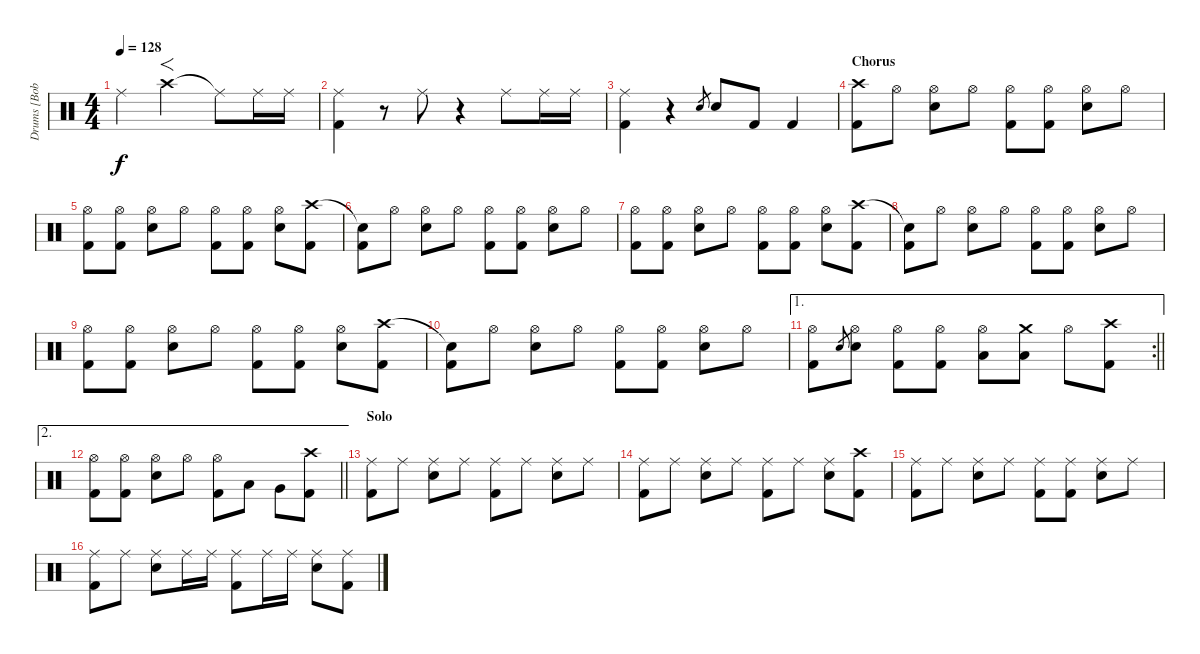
\track ("Drums [Bobby Blotzer]" "Drums [Bob") {instrument percussion}
\staff {score}
\articulation defaults
\ts (4 4)
\tempo 128
\clef neutral
\ks c "Ride (middle)".4{dy f} "Crash high (hit)".2{f} "Ride (middle)"{t}.8 "Ride (middle)".16 "Ride (middle)".16
|
("Ride (middle)" "Kick (hit) 2").4 r.8 "Ride (middle)".8 r.4 "Ride (middle)".8 "Ride (middle)".16 "Ride (middle)".16 |
("Ride (middle)" "Kick (hit) 2").4 r.4 "Electric Snare (hit)".8{gr} "Electric Snare (hit)".8 "Kick (hit) 2".8 "Kick (hit) 2".4 |
\section ("" "Chorus")
("Crash high (hit)" "Kick (hit) 2").8 "Hi-Hat (open)".8 ("Hi-Hat (open)" "Electric Snare (hit)").8 "Hi-Hat (open)".8 ("Hi-Hat (open)" "Kick (hit) 2").8 ("Hi-Hat (open)" "Kick (hit) 2").8 ("Hi-Hat (open)" "Electric Snare (hit)").8 "Hi-Hat (open)".8 |
("Hi-Hat (open)" "Kick (hit) 2").8 ("Hi-Hat (open)" "Kick (hit) 2").8 ("Hi-Hat (open)" "Electric Snare (hit)").8 "Hi-Hat (open)".8 ("Hi-Hat (open)" "Kick (hit) 2").8 ("Hi-Hat (open)" "Kick (hit) 2").8 ("Hi-Hat (open)" "Electric Snare (hit)").8 ("Crash high (hit)" "Kick (hit) 2").8 |
("Snare (hit)"{t} "Kick (hit) 2").8 "Hi-Hat (open)".8 ("Hi-Hat (open)" "Electric Snare (hit)").8 "Hi-Hat (open)".8 ("Hi-Hat (open)" "Kick (hit) 2").8 ("Hi-Hat (open)" "Kick (hit) 2").8 ("Hi-Hat (open)" "Electric Snare (hit)").8 "Hi-Hat (open)".8 |
("Hi-Hat (open)" "Kick (hit) 2").8 ("Hi-Hat (open)" "Kick (hit) 2").8 ("Hi-Hat (open)" "Electric Snare (hit)").8 "Hi-Hat (open)".8 ("Hi-Hat (open)" "Kick (hit) 2").8 ("Hi-Hat (open)" "Kick (hit) 2").8 ("Hi-Hat (open)" "Electric Snare (hit)").8 ("Crash high (hit)" "Kick (hit) 2").8 |
("Snare (hit)"{t} "Kick (hit) 2").8 "Hi-Hat (open)".8 ("Hi-Hat (open)" "Electric Snare (hit)").8 "Hi-Hat (open)".8 ("Hi-Hat (open)" "Kick (hit) 2").8 ("Hi-Hat (open)" "Kick (hit) 2").8 ("Hi-Hat (open)" "Electric Snare (hit)").8 "Hi-Hat (open)".8 |
("Hi-Hat (open)" "Kick (hit) 2").8 ("Hi-Hat (open)" "Kick (hit) 2").8 ("Hi-Hat (open)" "Electric Snare (hit)").8 "Hi-Hat (open)".8 ("Hi-Hat (open)" "Kick (hit) 2").8 ("Hi-Hat (open)" "Kick (hit) 2").8 ("Hi-Hat (open)" "Electric Snare (hit)").8 ("Crash high (hit)" "Kick (hit) 2").8 |
("Snare (hit)"{t} "Kick (hit) 2").8 "Hi-Hat (open)".8 ("Hi-Hat (open)" "Electric Snare (hit)").8 "Hi-Hat (open)".8 ("Hi-Hat (open)" "Kick (hit) 2").8 ("Hi-Hat (open)" "Kick (hit) 2").8 ("Hi-Hat (open)" "Electric Snare (hit)").8 "Hi-Hat (open)".8 |
\ae 1
\rc 2
\barLineRight lightlight
("Hi-Hat (open)" "Kick (hit) 2").8 "Electric Snare (hit)".8{gr} ("Hi-Hat (open)" "Electric Snare (hit)").8 ("Hi-Hat (open)" "Kick (hit) 2").8 ("Hi-Hat (open)" "Kick (hit) 2").8 ("Hi-Hat (open)" "Low Tom (hit)").8 ("Crash medium (hit)" "Low Tom (hit)").8 "Hi-Hat (open)".8 ("Crash high (hit)" "Kick (hit) 2").8 |
\ae 2
\barLineRight lightlight
("Hi-Hat (open)" "Kick (hit) 2").8 ("Hi-Hat (open)" "Kick (hit) 2").8 ("Hi-Hat (open)" "Electric Snare (hit)").8 "Hi-Hat (open)".8 ("Hi-Hat (open)" "Kick (hit) 2").8 "Low Tom (hit)".8 "Very Low Tom (hit)".8 ("Crash high (hit)" "Kick (hit) 2").8 |
\section ("" "Solo")
("Ride (middle)" "Kick (hit) 2").8 "Ride (middle)".8 ("Ride (middle)" "Electric Snare (hit)").8 "Ride (middle)".8 ("Ride (middle)" "Kick (hit) 2").8 "Ride (middle)".8 ("Ride (middle)" "Electric Snare (hit)").8 "Ride (middle)".8 |
("Ride (middle)" "Kick (hit) 2").8 "Ride (middle)".8 ("Ride (middle)" "Electric Snare (hit)").8 "Ride (middle)".8 ("Ride (middle)" "Kick (hit) 2").8 "Ride (middle)".8 ("Ride (middle)" "Electric Snare (hit)").8 ("Crash high (hit)" "Kick (hit) 2").8 |
("Ride (middle)" "Kick (hit) 2").8 "Ride (middle)".8 ("Ride (middle)" "Electric Snare (hit)").8 "Ride (middle)".8 ("Ride (middle)" "Kick (hit) 2").8 ("Ride (middle)" "Kick (hit) 2").8 ("Ride (middle)" "Electric Snare (hit)").8 "Ride (middle)".8 |
("Ride (middle)" "Kick (hit) 2").8 "Ride (middle)".8 ("Ride (middle)" "Electric Snare (hit)").8 "Ride (middle)".16 "Ride (middle)".16 ("Ride (middle)" "Kick (hit) 2").8 "Ride (middle)".16 "Ride (middle)".16 ("Ride (middle)" "Electric Snare (hit)").8 ("Ride (middle)" "Kick (hit) 2").8
